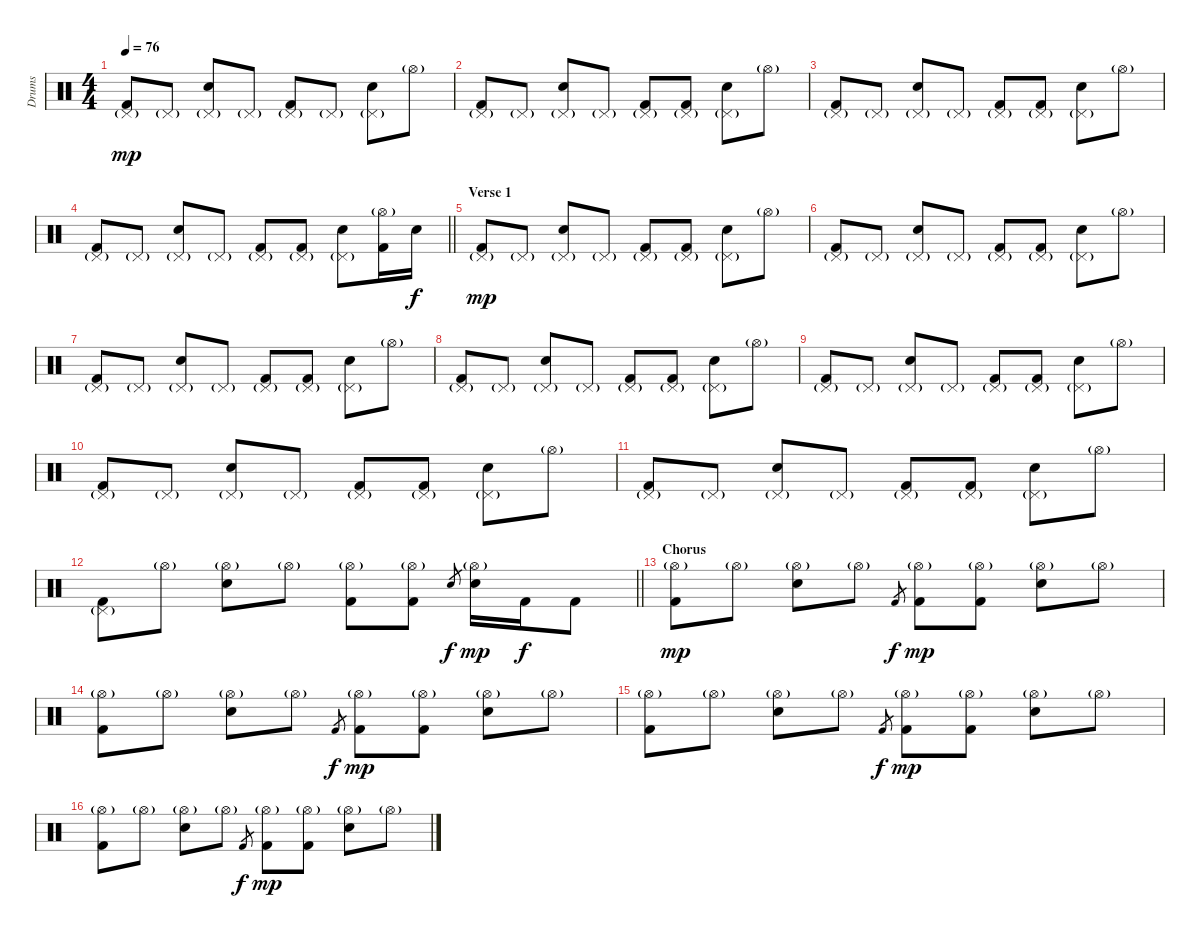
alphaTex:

\track ("Drums" "Drums") {instrument percussion}
\staff {score}
\articulation defaults
\ts (4 4)
\tempo 76
\clef neutral
\ks c
("Kick (hit) 2" "Pedal Hi-Hat (hit)"{g}).8{dy mp} "Pedal Hi-Hat (hit)"{g}.8 ("Electric Snare (hit)" "Pedal Hi-Hat (hit)"{g}).8 "Pedal Hi-Hat (hit)"{g}.8 ("Kick (hit) 2" "Pedal Hi-Hat (hit)"{g}).8 "Pedal Hi-Hat (hit)"{g}.8 ("Electric Snare (hit)" "Pedal Hi-Hat (hit)"{g}).8 "Hi-Hat (open)"{g}.8 |
("Kick (hit) 2" "Pedal Hi-Hat (hit)"{g}).8 "Pedal Hi-Hat (hit)"{g}.8 ("Electric Snare (hit)" "Pedal Hi-Hat (hit)"{g}).8 "Pedal Hi-Hat (hit)"{g}.8 ("Kick (hit) 2" "Pedal Hi-Hat (hit)"{g}).8 ("Kick (hit) 2" "Pedal Hi-Hat (hit)"{g}).8 ("Electric Snare (hit)" "Pedal Hi-Hat (hit)"{g}).8 "Hi-Hat (open)"{g}.8 |
("Kick (hit) 2" "Pedal Hi-Hat (hit)"{g}).8 "Pedal Hi-Hat (hit)"{g}.8 ("Electric Snare (hit)" "Pedal Hi-Hat (hit)"{g}).8 "Pedal Hi-Hat (hit)"{g}.8 ("Kick (hit) 2" "Pedal Hi-Hat (hit)"{g}).8 ("Kick (hit) 2" "Pedal Hi-Hat (hit)"{g}).8 ("Electric Snare (hit)" "Pedal Hi-Hat (hit)"{g}).8 "Hi-Hat (open)"{g}.8 |
\barLineRight lightlight
("Kick (hit) 2" "Pedal Hi-Hat (hit)"{g}).8 "Pedal Hi-Hat (hit)"{g}.8 ("Electric Snare (hit)" "Pedal Hi-Hat (hit)"{g}).8 "Pedal Hi-Hat (hit)"{g}.8 ("Kick (hit) 2" "Pedal Hi-Hat (hit)"{g}).8 ("Kick (hit) 2" "Pedal Hi-Hat (hit)"{g}).8 ("Electric Snare (hit)" "Pedal Hi-Hat (hit)"{g}).8 ("Kick (hit) 2" "Hi-Hat (open)"{g}).16 "Electric Snare (hit)".16{dy f} |
\section ("" "Verse 1")
("Kick (hit) 2" "Pedal Hi-Hat (hit)"{g}).8{dy mp} "Pedal Hi-Hat (hit)"{g}.8 ("Electric Snare (hit)" "Pedal Hi-Hat (hit)"{g}).8 "Pedal Hi-Hat (hit)"{g}.8 ("Kick (hit) 2" "Pedal Hi-Hat (hit)"{g}).8 ("Kick (hit) 2" "Pedal Hi-Hat (hit)"{g}).8 ("Electric Snare (hit)" "Pedal Hi-Hat (hit)"{g}).8 "Hi-Hat (open)"{g}.8 |
("Kick (hit) 2" "Pedal Hi-Hat (hit)"{g}).8 "Pedal Hi-Hat (hit)"{g}.8 ("Electric Snare (hit)" "Pedal Hi-Hat (hit)"{g}).8 "Pedal Hi-Hat (hit)"{g}.8 ("Kick (hit) 2" "Pedal Hi-Hat (hit)"{g}).8 ("Kick (hit) 2" "Pedal Hi-Hat (hit)"{g}).8 ("Electric Snare (hit)" "Pedal Hi-Hat (hit)"{g}).8 "Hi-Hat (open)"{g}.8 |
("Kick (hit) 2" "Pedal Hi-Hat (hit)"{g}).8 "Pedal Hi-Hat (hit)"{g}.8 ("Electric Snare (hit)" "Pedal Hi-Hat (hit)"{g}).8 "Pedal Hi-Hat (hit)"{g}.8 ("Kick (hit) 2" "Pedal Hi-Hat (hit)"{g}).8 ("Kick (hit) 2" "Pedal Hi-Hat (hit)"{g}).8 ("Electric Snare (hit)" "Pedal Hi-Hat (hit)"{g}).8 "Hi-Hat (open)"{g}.8 |
("Kick (hit) 2" "Pedal Hi-Hat (hit)"{g}).8 "Pedal Hi-Hat (hit)"{g}.8 ("Electric Snare (hit)" "Pedal Hi-Hat (hit)"{g}).8 "Pedal Hi-Hat (hit)"{g}.8 ("Kick (hit) 2" "Pedal Hi-Hat (hit)"{g}).8 ("Kick (hit) 2" "Pedal Hi-Hat (hit)"{g}).8 ("Electric Snare (hit)" "Pedal Hi-Hat (hit)"{g}).8 "Hi-Hat (open)"{g}.8 |
("Kick (hit) 2" "Pedal Hi-Hat (hit)"{g}).8 "Pedal Hi-Hat (hit)"{g}.8 ("Electric Snare (hit)" "Pedal Hi-Hat (hit)"{g}).8 "Pedal Hi-Hat (hit)"{g}.8 ("Kick (hit) 2" "Pedal Hi-Hat (hit)"{g}).8 ("Kick (hit) 2" "Pedal Hi-Hat (hit)"{g}).8 ("Electric Snare (hit)" "Pedal Hi-Hat (hit)"{g}).8 "Hi-Hat (open)"{g}.8 |
("Kick (hit) 2" "Pedal Hi-Hat (hit)"{g}).8 "Pedal Hi-Hat (hit)"{g}.8 ("Electric Snare (hit)" "Pedal Hi-Hat (hit)"{g}).8 "Pedal Hi-Hat (hit)"{g}.8 ("Kick (hit) 2" "Pedal Hi-Hat (hit)"{g}).8 ("Kick (hit) 2" "Pedal Hi-Hat (hit)"{g}).8 ("Electric Snare (hit)" "Pedal Hi-Hat (hit)"{g}).8 "Hi-Hat (open)"{g}.8 |
("Kick (hit) 2" "Pedal Hi-Hat (hit)"{g}).8 "Pedal Hi-Hat (hit)"{g}.8 ("Electric Snare (hit)" "Pedal Hi-Hat (hit)"{g}).8 "Pedal Hi-Hat (hit)"{g}.8 ("Kick (hit) 2" "Pedal Hi-Hat (hit)"{g}).8 ("Kick (hit) 2" "Pedal Hi-Hat (hit)"{g}).8 ("Electric Snare (hit)" "Pedal Hi-Hat (hit)"{g}).8 "Hi-Hat (open)"{g}.8 |
\barLineRight lightlight
("Kick (hit) 2" "Pedal Hi-Hat (hit)"{g}).8 "Hi-Hat (open)"{g}.8 ("Electric Snare (hit)" "Hi-Hat (open)"{g}).8 "Hi-Hat (open)"{g}.8 ("Kick (hit) 2" "Hi-Hat (open)"{g}).8 ("Kick (hit) 2" "Hi-Hat (open)"{g}).8 "Electric Snare (hit)".8{gr dy f} ("Electric Snare (hit)" "Hi-Hat (open)"{g}).16{dy mp} "Kick (hit) 2".16{dy f} "Kick (hit) 2".8 |
\section ("" "Chorus")
("Kick (hit) 2" "Hi-Hat (open)"{g}).8{dy mp} "Hi-Hat (open)"{g}.8 ("Electric Snare (hit)" "Hi-Hat (open)"{g}).8 "Hi-Hat (open)"{g}.8 "Kick (hit) 2".8{gr dy f} ("Kick (hit) 2" "Hi-Hat (open)"{g}).8{dy mp} ("Kick (hit) 2" "Hi-Hat (open)"{g}).8 ("Electric Snare (hit)" "Hi-Hat (open)"{g}).8 "Hi-Hat (open)"{g}.8 |
("Kick (hit) 2" "Hi-Hat (open)"{g}).8 "Hi-Hat (open)"{g}.8 ("Electric Snare (hit)" "Hi-Hat (open)"{g}).8 "Hi-Hat (open)"{g}.8 "Kick (hit) 2".8{gr dy f} ("Kick (hit) 2" "Hi-Hat (open)"{g}).8{dy mp} ("Kick (hit) 2" "Hi-Hat (open)"{g}).8 ("Electric Snare (hit)" "Hi-Hat (open)"{g}).8 "Hi-Hat (open)"{g}.8 |
("Kick (hit) 2" "Hi-Hat (open)"{g}).8 "Hi-Hat (open)"{g}.8 ("Electric Snare (hit)" "Hi-Hat (open)"{g}).8 "Hi-Hat (open)"{g}.8 "Kick (hit) 2".8{gr dy f} ("Kick (hit) 2" "Hi-Hat (open)"{g}).8{dy mp} ("Kick (hit) 2" "Hi-Hat (open)"{g}).8 ("Electric Snare (hit)" "Hi-Hat (open)"{g}).8 "Hi-Hat (open)"{g}.8 |
("Kick (hit) 2" "Hi-Hat (open)"{g}).8 "Hi-Hat (open)"{g}.8 ("Electric Snare (hit)" "Hi-Hat (open)"{g}).8 "Hi-Hat (open)"{g}.8 "Kick (hit) 2".8{gr dy f} ("Kick (hit) 2" "Hi-Hat (open)"{g}).8{dy mp} ("Kick (hit) 2" "Hi-Hat (open)"{g}).8 ("Electric Snare (hit)" "Hi-Hat (open)"{g}).8 "Hi-Hat (open)"{g}.8
